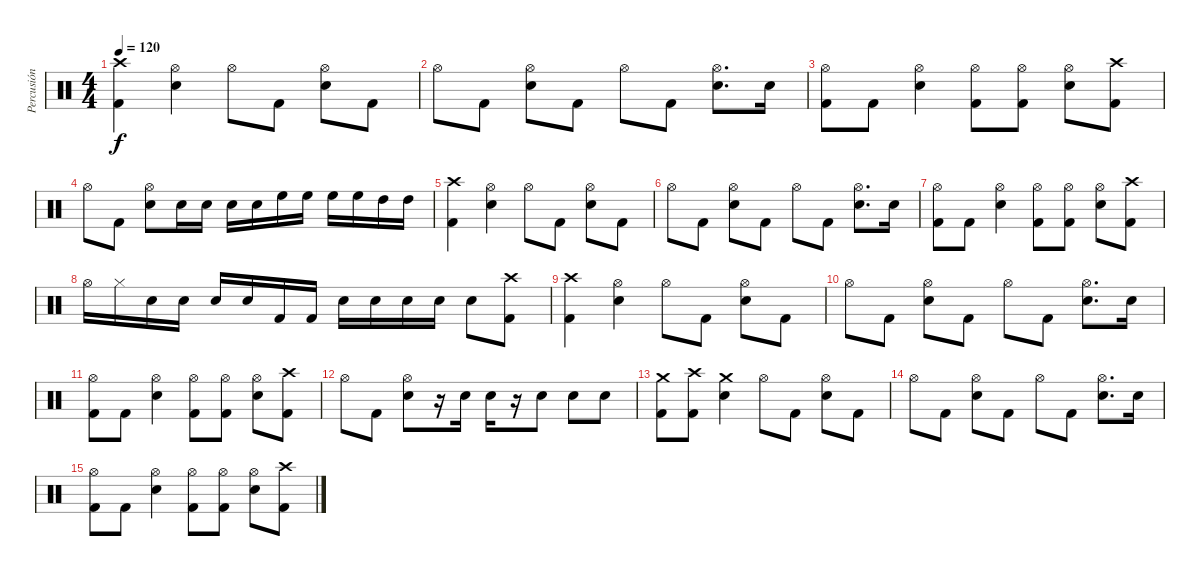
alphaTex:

\track ("Percusión" "Percusión") {instrument percussion}
\staff {score}
\articulation defaults
\ts (4 4)
\tempo 120
\clef neutral
\ks c
("Kick (hit) 2" "Crash high (hit)").4{dy f} ("Electric Snare (hit)" "Hi-Hat (open)").4 "Hi-Hat (open)".8 "Kick (hit) 2".8 ("Electric Snare (hit)" "Hi-Hat (open)").8 "Kick (hit) 2".8 |
"Hi-Hat (open)".8 "Kick (hit) 2".8 ("Hi-Hat (open)" "Electric Snare (hit)").8 "Kick (hit) 2".8 "Hi-Hat (open)".8 "Kick (hit) 2".8 ("Hi-Hat (open)" "Electric Snare (hit)").8{d} "Electric Snare (hit)".16 |
("Kick (hit) 2" "Hi-Hat (open)").8 "Kick (hit) 2".8 ("Electric Snare (hit)" "Hi-Hat (open)").4 ("Kick (hit) 2" "Hi-Hat (open)").8 ("Kick (hit) 2" "Hi-Hat (open)").8 ("Hi-Hat (open)" "Electric Snare (hit)").8 ("Kick (hit) 2" "Crash high (hit)").8 |
"Hi-Hat (open)".8 "Kick (hit) 2".8 ("Electric Snare (hit)" "Hi-Hat (open)").8 "Electric Snare (hit)".16 "Electric Snare (hit)".16 "Electric Snare (hit)".16 "Electric Snare (hit)".16 "High Floor Tom (hit)".16 "High Floor Tom (hit)".16 "High Floor Tom (hit)".16 "High Floor Tom (hit)".16 "High Tom (hit)".16 "High Tom (hit)".16 |
("Crash high (hit)" "Kick (hit) 2").4 ("Electric Snare (hit)" "Hi-Hat (open)").4 "Hi-Hat (open)".8 "Kick (hit) 2".8 ("Electric Snare (hit)" "Hi-Hat (open)").8 "Kick (hit) 2".8 |
"Hi-Hat (open)".8 "Kick (hit) 2".8 ("Hi-Hat (open)" "Electric Snare (hit)").8 "Kick (hit) 2".8 "Hi-Hat (open)".8 "Kick (hit) 2".8 ("Hi-Hat (open)" "Electric Snare (hit)").8{d} "Electric Snare (hit)".16 |
("Kick (hit) 2" "Hi-Hat (open)").8 "Kick (hit) 2".8 ("Electric Snare (hit)" "Hi-Hat (open)").4 ("Kick (hit) 2" "Hi-Hat (open)").8 ("Kick (hit) 2" "Hi-Hat (open)").8 ("Hi-Hat (open)" "Electric Snare (hit)").8 ("Crash high (hit)" "Kick (hit) 2").8 |
"Hi-Hat (open)".16 "Hi-Hat (closed)".16 "Electric Snare (hit)".16 "Electric Snare (hit)".16 "Electric Snare (hit)".16 "Electric Snare (hit)".16 "Kick (hit) 2".16 "Kick (hit) 2".16 "Electric Snare (hit)".16 "Electric Snare (hit)".16 "Electric Snare (hit)".16 "Electric Snare (hit)".16 "Electric Snare (hit)".8 ("Crash high (hit)" "Kick (hit) 2").8 |
("Crash high (hit)" "Kick (hit) 2").4 ("Electric Snare (hit)" "Hi-Hat (open)").4 "Hi-Hat (open)".8 "Kick (hit) 2".8 ("Electric Snare (hit)" "Hi-Hat (open)").8 "Kick (hit) 2".8 |
"Hi-Hat (open)".8 "Kick (hit) 2".8 ("Hi-Hat (open)" "Electric Snare (hit)").8 "Kick (hit) 2".8 "Hi-Hat (open)".8 "Kick (hit) 2".8 ("Hi-Hat (open)" "Electric Snare (hit)").8{d} "Electric Snare (hit)".16 |
("Kick (hit) 2" "Hi-Hat (open)").8 "Kick (hit) 2".8 ("Electric Snare (hit)" "Hi-Hat (open)").4 ("Kick (hit) 2" "Hi-Hat (open)").8 ("Kick (hit) 2" "Hi-Hat (open)").8 ("Hi-Hat (open)" "Electric Snare (hit)").8 ("Kick (hit) 2" "Crash high (hit)").8 |
"Hi-Hat (open)".8 "Kick (hit) 2".8 ("Electric Snare (hit)" "Hi-Hat (open)").8 r.16 "Electric Snare (hit)".16 "Electric Snare (hit)".16 r.16 "Electric Snare (hit)".8 "Electric Snare (hit)".8 "Electric Snare (hit)".8 |
("Kick (hit) 2" "Crash medium (hit)").8 ("Kick (hit) 2" "Crash high (hit)").8 ("Electric Snare (hit)" "Crash medium (hit)").4 "Hi-Hat (open)".8 "Kick (hit) 2".8 ("Electric Snare (hit)" "Hi-Hat (open)").8 "Kick (hit) 2".8 |
"Hi-Hat (open)".8 "Kick (hit) 2".8 ("Hi-Hat (open)" "Electric Snare (hit)").8 "Kick (hit) 2".8 "Hi-Hat (open)".8 "Kick (hit) 2".8 ("Hi-Hat (open)" "Electric Snare (hit)").8{d} "Electric Snare (hit)".16 |
("Kick (hit) 2" "Hi-Hat (open)").8 "Kick (hit) 2".8 ("Electric Snare (hit)" "Hi-Hat (open)").4 ("Kick (hit) 2" "Hi-Hat (open)").8 ("Kick (hit) 2" "Hi-Hat (open)").8 ("Hi-Hat (open)" "Electric Snare (hit)").8 ("Kick (hit) 2" "Crash high (hit)").8
